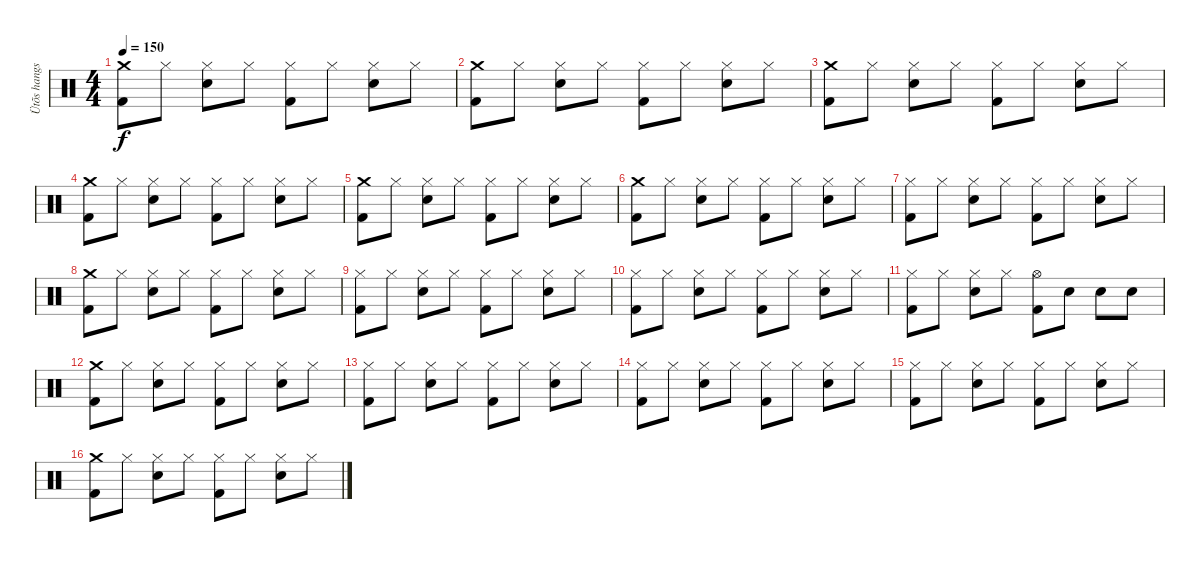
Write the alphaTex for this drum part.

\track ("Ütõs hangszer" "Ütõs hangs") {instrument percussion}
\staff {score}
\articulation defaults
\ts (4 4)
\tempo 150
\clef neutral
\ks c
("Crash medium (hit)" "Kick (hit) 2").8{dy f} "Hi-Hat (closed)".8 ("Hi-Hat (closed)" "Electric Snare (hit)").8 "Hi-Hat (closed)".8 ("Hi-Hat (closed)" "Kick (hit) 2").8 "Hi-Hat (closed)".8 ("Hi-Hat (closed)" "Electric Snare (hit)").8 "Hi-Hat (closed)".8 |
("Crash medium (hit)" "Kick (hit) 2").8 "Hi-Hat (closed)".8 ("Hi-Hat (closed)" "Electric Snare (hit)").8 "Hi-Hat (closed)".8 ("Hi-Hat (closed)" "Kick (hit) 2").8 "Hi-Hat (closed)".8 ("Hi-Hat (closed)" "Electric Snare (hit)").8 "Hi-Hat (closed)".8 |
("Crash medium (hit)" "Kick (hit) 2").8 "Hi-Hat (closed)".8 ("Hi-Hat (closed)" "Electric Snare (hit)").8 "Hi-Hat (closed)".8 ("Hi-Hat (closed)" "Kick (hit) 2").8 "Hi-Hat (closed)".8 ("Hi-Hat (closed)" "Electric Snare (hit)").8 "Hi-Hat (closed)".8 |
("Crash medium (hit)" "Kick (hit) 2").8 "Hi-Hat (closed)".8 ("Hi-Hat (closed)" "Electric Snare (hit)").8 "Hi-Hat (closed)".8 ("Hi-Hat (closed)" "Kick (hit) 2").8 "Hi-Hat (closed)".8 ("Hi-Hat (closed)" "Electric Snare (hit)").8 "Hi-Hat (closed)".8 |
("Crash medium (hit)" "Kick (hit) 2").8 "Hi-Hat (closed)".8 ("Hi-Hat (closed)" "Electric Snare (hit)").8 "Hi-Hat (closed)".8 ("Hi-Hat (closed)" "Kick (hit) 2").8 "Hi-Hat (closed)".8 ("Hi-Hat (closed)" "Electric Snare (hit)").8 "Hi-Hat (closed)".8 |
("Crash medium (hit)" "Kick (hit) 2").8 "Hi-Hat (closed)".8 ("Hi-Hat (closed)" "Electric Snare (hit)").8 "Hi-Hat (closed)".8 ("Hi-Hat (closed)" "Kick (hit) 2").8 "Hi-Hat (closed)".8 ("Hi-Hat (closed)" "Electric Snare (hit)").8 "Hi-Hat (closed)".8 |
("Hi-Hat (closed)" "Kick (hit) 2").8 "Hi-Hat (closed)".8 ("Hi-Hat (closed)" "Electric Snare (hit)").8 "Hi-Hat (closed)".8 ("Hi-Hat (closed)" "Kick (hit) 2").8 "Hi-Hat (closed)".8 ("Hi-Hat (closed)" "Electric Snare (hit)").8 "Hi-Hat (closed)".8 |
("Crash medium (hit)" "Kick (hit) 2").8 "Hi-Hat (closed)".8 ("Hi-Hat (closed)" "Electric Snare (hit)").8 "Hi-Hat (closed)".8 ("Hi-Hat (closed)" "Kick (hit) 2").8 "Hi-Hat (closed)".8 ("Hi-Hat (closed)" "Electric Snare (hit)").8 "Hi-Hat (closed)".8 |
("Hi-Hat (closed)" "Kick (hit) 2").8 "Hi-Hat (closed)".8 ("Hi-Hat (closed)" "Electric Snare (hit)").8 "Hi-Hat (closed)".8 ("Hi-Hat (closed)" "Kick (hit) 2").8 "Hi-Hat (closed)".8 ("Hi-Hat (closed)" "Electric Snare (hit)").8 "Hi-Hat (closed)".8 |
("Hi-Hat (closed)" "Kick (hit) 2").8 "Hi-Hat (closed)".8 ("Hi-Hat (closed)" "Electric Snare (hit)").8 "Hi-Hat (closed)".8 ("Hi-Hat (closed)" "Kick (hit) 2").8 "Hi-Hat (closed)".8 ("Hi-Hat (closed)" "Electric Snare (hit)").8 "Hi-Hat (closed)".8 |
("Hi-Hat (closed)" "Kick (hit) 2").8 "Hi-Hat (closed)".8 ("Hi-Hat (closed)" "Electric Snare (hit)").8 "Hi-Hat (closed)".8 ("Hi-Hat (open)" "Kick (hit) 2").8 "Electric Snare (hit)".8 "Electric Snare (hit)".8 "Electric Snare (hit)".8 |
("Crash medium (hit)" "Kick (hit) 2").8 "Hi-Hat (closed)".8 ("Hi-Hat (closed)" "Electric Snare (hit)").8 "Hi-Hat (closed)".8 ("Hi-Hat (closed)" "Kick (hit) 2").8 "Hi-Hat (closed)".8 ("Hi-Hat (closed)" "Electric Snare (hit)").8 "Hi-Hat (closed)".8 |
("Hi-Hat (closed)" "Kick (hit) 2").8 "Hi-Hat (closed)".8 ("Hi-Hat (closed)" "Electric Snare (hit)").8 "Hi-Hat (closed)".8 ("Hi-Hat (closed)" "Kick (hit) 2").8 "Hi-Hat (closed)".8 ("Hi-Hat (closed)" "Electric Snare (hit)").8 "Hi-Hat (closed)".8 |
("Hi-Hat (closed)" "Kick (hit) 2").8 "Hi-Hat (closed)".8 ("Hi-Hat (closed)" "Electric Snare (hit)").8 "Hi-Hat (closed)".8 ("Hi-Hat (closed)" "Kick (hit) 2").8 "Hi-Hat (closed)".8 ("Hi-Hat (closed)" "Electric Snare (hit)").8 "Hi-Hat (closed)".8 |
("Hi-Hat (closed)" "Kick (hit) 2").8 "Hi-Hat (closed)".8 ("Hi-Hat (closed)" "Electric Snare (hit)").8 "Hi-Hat (closed)".8 ("Hi-Hat (closed)" "Kick (hit) 2").8 "Hi-Hat (closed)".8 ("Hi-Hat (closed)" "Electric Snare (hit)").8 "Hi-Hat (closed)".8 |
("Crash medium (hit)" "Kick (hit) 2").8 "Hi-Hat (closed)".8 ("Hi-Hat (closed)" "Electric Snare (hit)").8 "Hi-Hat (closed)".8 ("Hi-Hat (closed)" "Kick (hit) 2").8 "Hi-Hat (closed)".8 ("Hi-Hat (closed)" "Electric Snare (hit)").8 "Hi-Hat (closed)".8
